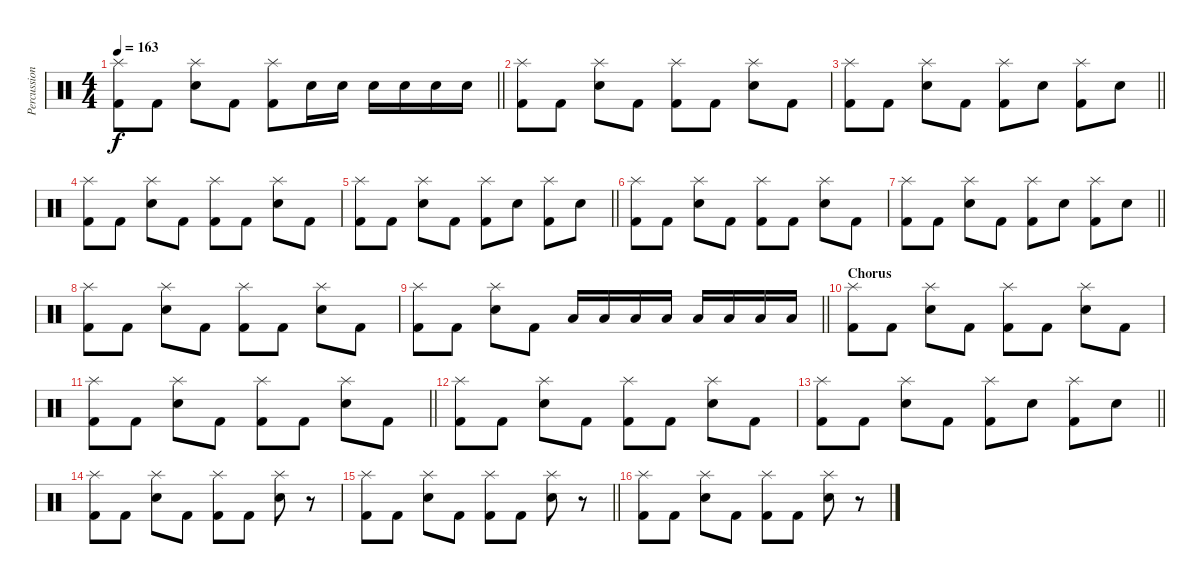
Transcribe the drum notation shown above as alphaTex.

\track ("Percussion" "Percussion") {solo instrument percussion}
\staff {score}
\articulation defaults
\ts (4 4)
\tempo 163
\clef neutral
\barLineRight lightlight
\ks c
("Splash (hit)" "Kick (hit) 2").8{dy f} "Kick (hit) 2".8 ("Splash (hit)" "Snare (hit) 2").8 "Kick (hit) 2".8 ("Splash (hit)" "Kick (hit) 2").8 "Snare (hit) 2".16 "Snare (hit) 2".16 "Snare (hit) 2".16 "Snare (hit) 2".16 "Snare (hit) 2".16 "Snare (hit) 2".16 |
("Splash (hit)" "Kick (hit) 2").8 "Kick (hit) 2".8 ("Splash (hit)" "Snare (hit) 2").8 "Kick (hit) 2".8 ("Splash (hit)" "Kick (hit) 2").8 "Kick (hit) 2".8 ("Splash (hit)" "Snare (hit) 2").8 "Kick (hit) 2".8 |
\barLineRight lightlight
("Splash (hit)" "Kick (hit) 2").8 "Kick (hit) 2".8 ("Splash (hit)" "Snare (hit) 2").8 "Kick (hit) 2".8 ("Splash (hit)" "Kick (hit) 2").8 "Snare (hit) 2".8 ("Splash (hit)" "Kick (hit) 2").8 "Snare (hit) 2".8 |
("Splash (hit)" "Kick (hit) 2").8 "Kick (hit) 2".8 ("Splash (hit)" "Snare (hit) 2").8 "Kick (hit) 2".8 ("Splash (hit)" "Kick (hit) 2").8 "Kick (hit) 2".8 ("Splash (hit)" "Snare (hit) 2").8 "Kick (hit) 2".8 |
\barLineRight lightlight
("Splash (hit)" "Kick (hit) 2").8 "Kick (hit) 2".8 ("Splash (hit)" "Snare (hit) 2").8 "Kick (hit) 2".8 ("Splash (hit)" "Kick (hit) 2").8 "Snare (hit) 2".8 ("Splash (hit)" "Kick (hit) 2").8 "Snare (hit) 2".8 |
("Splash (hit)" "Kick (hit) 2").8 "Kick (hit) 2".8 ("Splash (hit)" "Snare (hit) 2").8 "Kick (hit) 2".8 ("Splash (hit)" "Kick (hit) 2").8 "Kick (hit) 2".8 ("Splash (hit)" "Snare (hit) 2").8 "Kick (hit) 2".8 |
\barLineRight lightlight
("Splash (hit)" "Kick (hit) 2").8 "Kick (hit) 2".8 ("Splash (hit)" "Snare (hit) 2").8 "Kick (hit) 2".8 ("Splash (hit)" "Kick (hit) 2").8 "Snare (hit) 2".8 ("Splash (hit)" "Kick (hit) 2").8 "Snare (hit) 2".8 |
("Splash (hit)" "Kick (hit) 2").8 "Kick (hit) 2".8 ("Splash (hit)" "Snare (hit) 2").8 "Kick (hit) 2".8 ("Splash (hit)" "Kick (hit) 2").8 "Kick (hit) 2".8 ("Splash (hit)" "Snare (hit) 2").8 "Kick (hit) 2".8 |
\barLineRight lightlight
("Splash (hit)" "Kick (hit) 2").8 "Kick (hit) 2".8 ("Splash (hit)" "Snare (hit) 2").8 "Kick (hit) 2".8 "Low Tom (hit)".16 "Low Tom (hit)".16 "Low Tom (hit)".16 "Low Tom (hit)".16 "Low Floor Tom (hit)".16 "Low Floor Tom (hit)".16 "Low Floor Tom (hit)".16 "Low Floor Tom (hit)".16 |
\section ("" "Chorus")
("Splash (hit)" "Kick (hit) 2").8 "Kick (hit) 2".8 ("Splash (hit)" "Snare (hit) 2").8 "Kick (hit) 2".8 ("Splash (hit)" "Kick (hit) 2").8 "Kick (hit) 2".8 ("Splash (hit)" "Snare (hit) 2").8 "Kick (hit) 2".8 |
\barLineRight lightlight
("Splash (hit)" "Kick (hit) 2").8 "Kick (hit) 2".8 ("Splash (hit)" "Snare (hit) 2").8 "Kick (hit) 2".8 ("Splash (hit)" "Kick (hit) 2").8 "Kick (hit) 2".8 ("Splash (hit)" "Snare (hit) 2").8 "Kick (hit) 2".8 |
("Splash (hit)" "Kick (hit) 2").8 "Kick (hit) 2".8 ("Splash (hit)" "Snare (hit) 2").8 "Kick (hit) 2".8 ("Splash (hit)" "Kick (hit) 2").8 "Kick (hit) 2".8 ("Splash (hit)" "Snare (hit) 2").8 "Kick (hit) 2".8 |
\barLineRight lightlight
("Splash (hit)" "Kick (hit) 2").8 "Kick (hit) 2".8 ("Splash (hit)" "Snare (hit) 2").8 "Kick (hit) 2".8 ("Splash (hit)" "Kick (hit) 2").8 "Snare (hit) 2".8 ("Splash (hit)" "Kick (hit) 2").8 "Snare (hit) 2".8 |
("Splash (hit)" "Kick (hit) 2").8 "Kick (hit) 2".8 ("Splash (hit)" "Snare (hit) 2").8 "Kick (hit) 2".8 ("Splash (hit)" "Kick (hit) 2").8 "Kick (hit) 2".8 ("Splash (hit)" "Snare (hit) 2").8 r.8 |
\barLineRight lightlight
("Splash (hit)" "Kick (hit) 2").8 "Kick (hit) 2".8 ("Splash (hit)" "Snare (hit) 2").8 "Kick (hit) 2".8 ("Splash (hit)" "Kick (hit) 2").8 "Kick (hit) 2".8 ("Splash (hit)" "Snare (hit) 2").8 r.8 |
("Splash (hit)" "Kick (hit) 2").8 "Kick (hit) 2".8 ("Splash (hit)" "Snare (hit) 2").8 "Kick (hit) 2".8 ("Splash (hit)" "Kick (hit) 2").8 "Kick (hit) 2".8 ("Splash (hit)" "Snare (hit) 2").8 r.8
